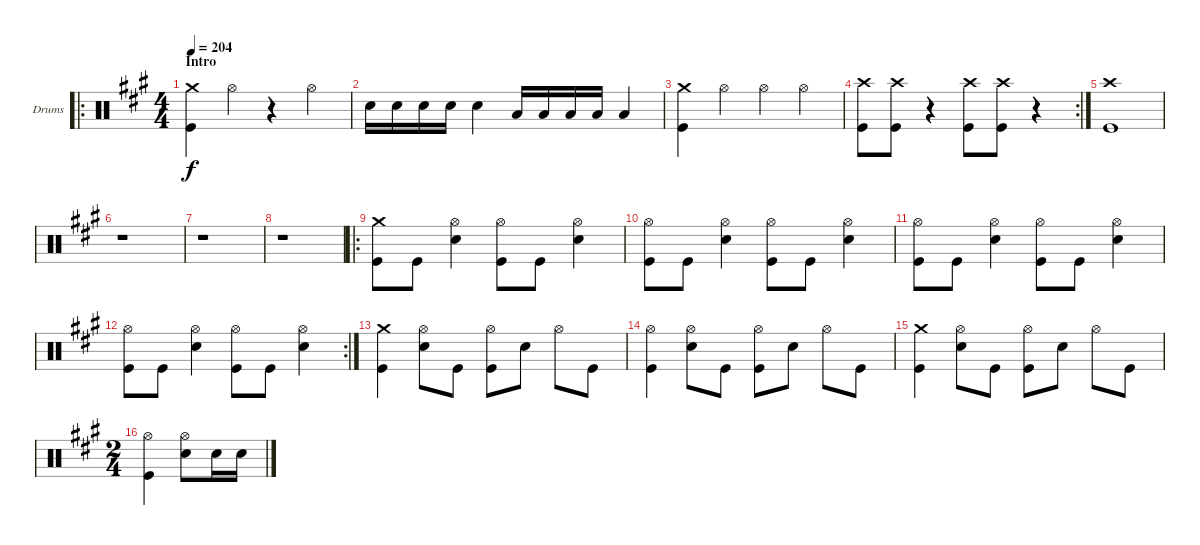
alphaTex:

\bracketExtendMode groupsimilarinstruments
\firstSystemTrackNameOrientation horizontal
\otherSystemsTrackNameOrientation horizontal
\track ("Drumkit" "Drums") {instrument percussion}
\staff {score}
\articulation defaults
\ro
\ts (4 4)
\section ("" "Intro")
\tempo 204
\clef neutral
\ks a
("Kick (hit)" "Crash medium (hit)").4{dy f} "Hi-Hat (open)".4 r.4 "Hi-Hat (open)".4 |
"Snare (hit) 2".16 "Snare (hit) 2".16 "Snare (hit) 2".16 "Snare (hit) 2".16 "Snare (hit) 2".4 "Low Tom (hit)".16 "Low Tom (hit)".16 "Low Tom (hit)".16 "Low Tom (hit)".16 "Low Tom (hit)".4 |
("Kick (hit)" "Crash medium (hit)").4 "Hi-Hat (open)".4 "Hi-Hat (open)".4 "Hi-Hat (open)".4 |
\rc 2
("Crash high (hit)" "Kick (hit)").8 ("Crash high (hit)" "Kick (hit)").8 r.4 ("Crash high (hit)" "Kick (hit)").8 ("Crash high (hit)" "Kick (hit)").8 r.4 |
("Crash high (hit)" "Kick (hit)").1 |
r.1 |
r.1 |
r.1 |
\ro
("Crash medium (hit)" "Kick (hit)").8 "Kick (hit)".8 ("Hi-Hat (open)" "Snare (hit) 2").4 ("Kick (hit)" "Hi-Hat (open)").8 "Kick (hit)".8 ("Hi-Hat (open)" "Snare (hit) 2").4 |
("Kick (hit)" "Hi-Hat (open)").8 "Kick (hit)".8 ("Hi-Hat (open)" "Snare (hit) 2").4 ("Kick (hit)" "Hi-Hat (open)").8 "Kick (hit)".8 ("Hi-Hat (open)" "Snare (hit) 2").4 |
("Kick (hit)" "Hi-Hat (open)").8 "Kick (hit)".8 ("Hi-Hat (open)" "Snare (hit) 2").4 ("Kick (hit)" "Hi-Hat (open)").8 "Kick (hit)".8 ("Hi-Hat (open)" "Snare (hit) 2").4 |
\rc 2
("Kick (hit)" "Hi-Hat (open)").8 "Kick (hit)".8 ("Hi-Hat (open)" "Snare (hit) 2").4 ("Kick (hit)" "Hi-Hat (open)").8 "Kick (hit)".8 ("Hi-Hat (open)" "Snare (hit) 2").4 |
("Crash medium (hit)" "Kick (hit)").4 ("Hi-Hat (open)" "Snare (hit) 2").8 "Kick (hit)".8 ("Hi-Hat (open)" "Kick (hit)").8 "Snare (hit) 2".8 "Hi-Hat (open)".8 "Kick (hit)".8 |
("Kick (hit)" "Hi-Hat (open)").4 ("Hi-Hat (open)" "Snare (hit) 2").8 "Kick (hit)".8 ("Hi-Hat (open)" "Kick (hit)").8 "Snare (hit) 2".8 "Hi-Hat (open)".8 "Kick (hit)".8 |
("Crash medium (hit)" "Kick (hit)").4 ("Hi-Hat (open)" "Snare (hit) 2").8 "Kick (hit)".8 ("Hi-Hat (open)" "Kick (hit)").8 "Snare (hit) 2".8 "Hi-Hat (open)".8 "Kick (hit)".8 |
\ts (2 4)
("Hi-Hat (open)" "Kick (hit)").4 ("Hi-Hat (open)" "Snare (hit) 2").8 "Snare (hit) 2".16 "Snare (hit) 2".16
